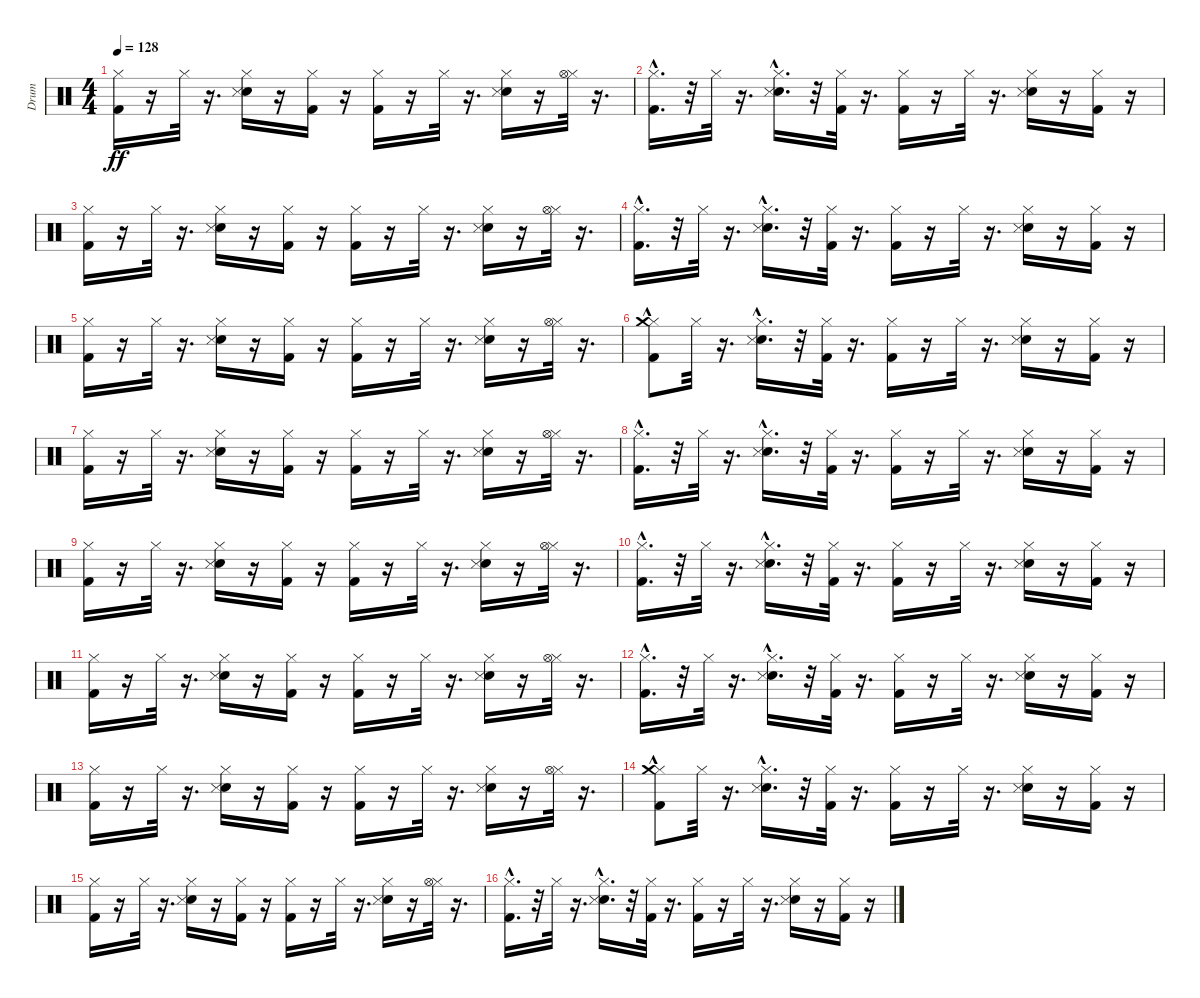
\track ("Drum" "Drum") {instrument percussion}
\staff {score}
\articulation defaults
\ts (4 4)
\tempo 128
\clef neutral
\ks c
("Hi-Hat (closed)" "Kick (hit) 2").16{dy ff} r.16 "Hi-Hat (closed)".32 r.16{d} ("Electric Snare (hit)" "Hi-Hat (closed)" "Snare (side stick) 3").16 r.16 ("Kick (hit) 2" "Hi-Hat (closed)").16 r.16 ("Kick (hit) 2" "Hi-Hat (closed)").16 r.16 "Hi-Hat (closed)".32 r.16{d} ("Electric Snare (hit)" "Hi-Hat (closed)" "Snare (side stick) 3").16 r.16 ("Hi-Hat (closed)" "Hi-Hat (open)").32 r.16{d} |
("Kick (hit) 2"{hac} "Hi-Hat (closed)").16{d} r.32 "Hi-Hat (closed)".32 r.16{d} ("Electric Snare (hit)" "Hi-Hat (closed)" "Snare (side stick) 3"{hac}).16{d} r.32 ("Kick (hit) 2" "Hi-Hat (closed)").32 r.16{d} ("Kick (hit) 2" "Hi-Hat (closed)").16 r.16 "Hi-Hat (closed)".32 r.16{d} ("Electric Snare (hit)" "Hi-Hat (closed)" "Snare (side stick) 3").16 r.16 ("Kick (hit) 2" "Hi-Hat (closed)").16 r.16 |
("Hi-Hat (closed)" "Kick (hit) 2").16 r.16 "Hi-Hat (closed)".32 r.16{d} ("Electric Snare (hit)" "Hi-Hat (closed)" "Snare (side stick) 3").16 r.16 ("Kick (hit) 2" "Hi-Hat (closed)").16 r.16 ("Kick (hit) 2" "Hi-Hat (closed)").16 r.16 "Hi-Hat (closed)".32 r.16{d} ("Electric Snare (hit)" "Hi-Hat (closed)" "Snare (side stick) 3").16 r.16 ("Hi-Hat (closed)" "Hi-Hat (open)").32 r.16{d} |
("Kick (hit) 2"{hac} "Hi-Hat (closed)").16{d} r.32 "Hi-Hat (closed)".32 r.16{d} ("Electric Snare (hit)" "Hi-Hat (closed)" "Snare (side stick) 3"{hac}).16{d} r.32 ("Kick (hit) 2" "Hi-Hat (closed)").32 r.16{d} ("Kick (hit) 2" "Hi-Hat (closed)").16 r.16 "Hi-Hat (closed)".32 r.16{d} ("Electric Snare (hit)" "Hi-Hat (closed)" "Snare (side stick) 3").16 r.16 ("Kick (hit) 2" "Hi-Hat (closed)").16 r.16 |
("Hi-Hat (closed)" "Kick (hit) 2").16 r.16 "Hi-Hat (closed)".32 r.16{d} ("Electric Snare (hit)" "Hi-Hat (closed)" "Snare (side stick) 3").16 r.16 ("Kick (hit) 2" "Hi-Hat (closed)").16 r.16 ("Kick (hit) 2" "Hi-Hat (closed)").16 r.16 "Hi-Hat (closed)".32 r.16{d} ("Electric Snare (hit)" "Hi-Hat (closed)" "Snare (side stick) 3").16 r.16 ("Hi-Hat (closed)" "Hi-Hat (open)").32 r.16{d} |
("Kick (hit) 2"{hac} "Hi-Hat (closed)" "Crash medium (hit)").8 "Hi-Hat (closed)".32 r.16{d} ("Electric Snare (hit)" "Hi-Hat (closed)" "Snare (side stick) 3"{hac}).16{d} r.32 ("Kick (hit) 2" "Hi-Hat (closed)").32 r.16{d} ("Kick (hit) 2" "Hi-Hat (closed)").16 r.16 "Hi-Hat (closed)".32 r.16{d} ("Electric Snare (hit)" "Hi-Hat (closed)" "Snare (side stick) 3").16 r.16 ("Kick (hit) 2" "Hi-Hat (closed)").16 r.16 |
("Hi-Hat (closed)" "Kick (hit) 2").16 r.16 "Hi-Hat (closed)".32 r.16{d} ("Electric Snare (hit)" "Hi-Hat (closed)" "Snare (side stick) 3").16 r.16 ("Kick (hit) 2" "Hi-Hat (closed)").16 r.16 ("Kick (hit) 2" "Hi-Hat (closed)").16 r.16 "Hi-Hat (closed)".32 r.16{d} ("Electric Snare (hit)" "Hi-Hat (closed)" "Snare (side stick) 3").16 r.16 ("Hi-Hat (closed)" "Hi-Hat (open)").32 r.16{d} |
("Kick (hit) 2"{hac} "Hi-Hat (closed)").16{d} r.32 "Hi-Hat (closed)".32 r.16{d} ("Electric Snare (hit)" "Hi-Hat (closed)" "Snare (side stick) 3"{hac}).16{d} r.32 ("Kick (hit) 2" "Hi-Hat (closed)").32 r.16{d} ("Kick (hit) 2" "Hi-Hat (closed)").16 r.16 "Hi-Hat (closed)".32 r.16{d} ("Electric Snare (hit)" "Hi-Hat (closed)" "Snare (side stick) 3").16 r.16 ("Kick (hit) 2" "Hi-Hat (closed)").16 r.16 |
("Hi-Hat (closed)" "Kick (hit) 2").16 r.16 "Hi-Hat (closed)".32 r.16{d} ("Electric Snare (hit)" "Hi-Hat (closed)" "Snare (side stick) 3").16 r.16 ("Kick (hit) 2" "Hi-Hat (closed)").16 r.16 ("Kick (hit) 2" "Hi-Hat (closed)").16 r.16 "Hi-Hat (closed)".32 r.16{d} ("Electric Snare (hit)" "Hi-Hat (closed)" "Snare (side stick) 3").16 r.16 ("Hi-Hat (closed)" "Hi-Hat (open)").32 r.16{d} |
("Kick (hit) 2"{hac} "Hi-Hat (closed)").16{d} r.32 "Hi-Hat (closed)".32 r.16{d} ("Electric Snare (hit)" "Hi-Hat (closed)" "Snare (side stick) 3"{hac}).16{d} r.32 ("Kick (hit) 2" "Hi-Hat (closed)").32 r.16{d} ("Kick (hit) 2" "Hi-Hat (closed)").16 r.16 "Hi-Hat (closed)".32 r.16{d} ("Electric Snare (hit)" "Hi-Hat (closed)" "Snare (side stick) 3").16 r.16 ("Kick (hit) 2" "Hi-Hat (closed)").16 r.16 |
("Hi-Hat (closed)" "Kick (hit) 2").16 r.16 "Hi-Hat (closed)".32 r.16{d} ("Electric Snare (hit)" "Hi-Hat (closed)" "Snare (side stick) 3").16 r.16 ("Kick (hit) 2" "Hi-Hat (closed)").16 r.16 ("Kick (hit) 2" "Hi-Hat (closed)").16 r.16 "Hi-Hat (closed)".32 r.16{d} ("Electric Snare (hit)" "Hi-Hat (closed)" "Snare (side stick) 3").16 r.16 ("Hi-Hat (closed)" "Hi-Hat (open)").32 r.16{d} |
("Kick (hit) 2"{hac} "Hi-Hat (closed)").16{d} r.32 "Hi-Hat (closed)".32 r.16{d} ("Electric Snare (hit)" "Hi-Hat (closed)" "Snare (side stick) 3"{hac}).16{d} r.32 ("Kick (hit) 2" "Hi-Hat (closed)").32 r.16{d} ("Kick (hit) 2" "Hi-Hat (closed)").16 r.16 "Hi-Hat (closed)".32 r.16{d} ("Electric Snare (hit)" "Hi-Hat (closed)" "Snare (side stick) 3").16 r.16 ("Kick (hit) 2" "Hi-Hat (closed)").16 r.16 |
("Hi-Hat (closed)" "Kick (hit) 2").16 r.16 "Hi-Hat (closed)".32 r.16{d} ("Electric Snare (hit)" "Hi-Hat (closed)" "Snare (side stick) 3").16 r.16 ("Kick (hit) 2" "Hi-Hat (closed)").16 r.16 ("Kick (hit) 2" "Hi-Hat (closed)").16 r.16 "Hi-Hat (closed)".32 r.16{d} ("Electric Snare (hit)" "Hi-Hat (closed)" "Snare (side stick) 3").16 r.16 ("Hi-Hat (closed)" "Hi-Hat (open)").32 r.16{d} |
("Kick (hit) 2"{hac} "Hi-Hat (closed)" "Crash medium (hit)").8 "Hi-Hat (closed)".32 r.16{d} ("Electric Snare (hit)" "Hi-Hat (closed)" "Snare (side stick) 3"{hac}).16{d} r.32 ("Kick (hit) 2" "Hi-Hat (closed)").32 r.16{d} ("Kick (hit) 2" "Hi-Hat (closed)").16 r.16 "Hi-Hat (closed)".32 r.16{d} ("Electric Snare (hit)" "Hi-Hat (closed)" "Snare (side stick) 3").16 r.16 ("Kick (hit) 2" "Hi-Hat (closed)").16 r.16 |
("Hi-Hat (closed)" "Kick (hit) 2").16 r.16 "Hi-Hat (closed)".32 r.16{d} ("Electric Snare (hit)" "Hi-Hat (closed)" "Snare (side stick) 3").16 r.16 ("Kick (hit) 2" "Hi-Hat (closed)").16 r.16 ("Kick (hit) 2" "Hi-Hat (closed)").16 r.16 "Hi-Hat (closed)".32 r.16{d} ("Electric Snare (hit)" "Hi-Hat (closed)" "Snare (side stick) 3").16 r.16 ("Hi-Hat (closed)" "Hi-Hat (open)").32 r.16{d} |
("Kick (hit) 2"{hac} "Hi-Hat (closed)").16{d} r.32 "Hi-Hat (closed)".32 r.16{d} ("Electric Snare (hit)" "Hi-Hat (closed)" "Snare (side stick) 3"{hac}).16{d} r.32 ("Kick (hit) 2" "Hi-Hat (closed)").32 r.16{d} ("Kick (hit) 2" "Hi-Hat (closed)").16 r.16 "Hi-Hat (closed)".32 r.16{d} ("Electric Snare (hit)" "Hi-Hat (closed)" "Snare (side stick) 3").16 r.16 ("Kick (hit) 2" "Hi-Hat (closed)").16 r.16
